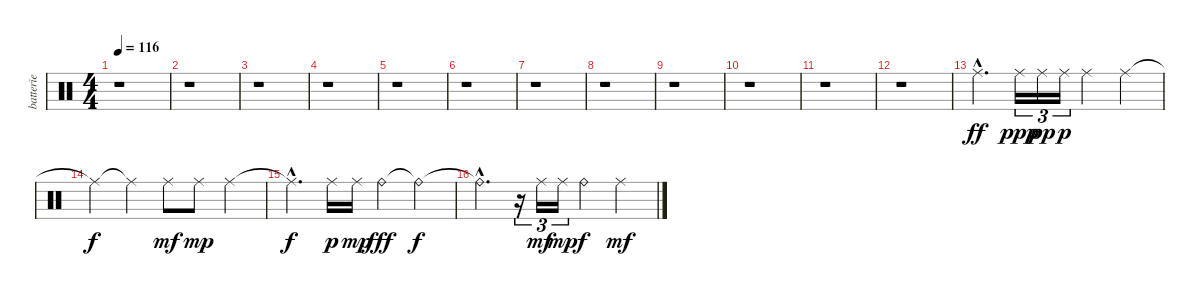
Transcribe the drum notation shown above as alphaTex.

\track ("batterie" "batterie") {instrument percussion}
\staff {score}
\articulation defaults
\ts (4 4)
\tempo 116
\clef neutral
\ks c
r.1{dy ff} |
r.1 |
r.1 |
r.1 |
r.1 |
r.1 |
r.1 |
r.1 |
r.1 |
r.1 |
r.1 |
r.1 |
"Ride (middle)"{hac}.4{d} "Ride (middle)".16{tu (3 2) dy ppp} "Ride (middle)".16{tu (3 2) dy pp} "Ride (middle)".16{tu (3 2) dy p} "Ride (middle)".4 "Ride (middle)".4 |
"Ride (middle)"{t}.4{dy f} "Ride (middle)"{t}.4 "Ride (middle)".8{dy mf} "Ride (middle)".8{dy mp} "Ride (middle)".4 |
"Ride (middle)"{hac t}.4{d dy f} "Ride (middle)".16{dy p} "Ride (middle)".16{dy mp} "Ride (bell)".4{dy fff} "Ride (bell)"{t}.4{dy f} |
"Ride (bell)"{hac t}.4{d} r.16{tu (3 2)} "Ride (middle)".16{tu (3 2) dy mf} "Ride (middle)".16{tu (3 2) dy mp} "Ride (bell)".4{dy f} "Ride (middle)".4{dy mf}
